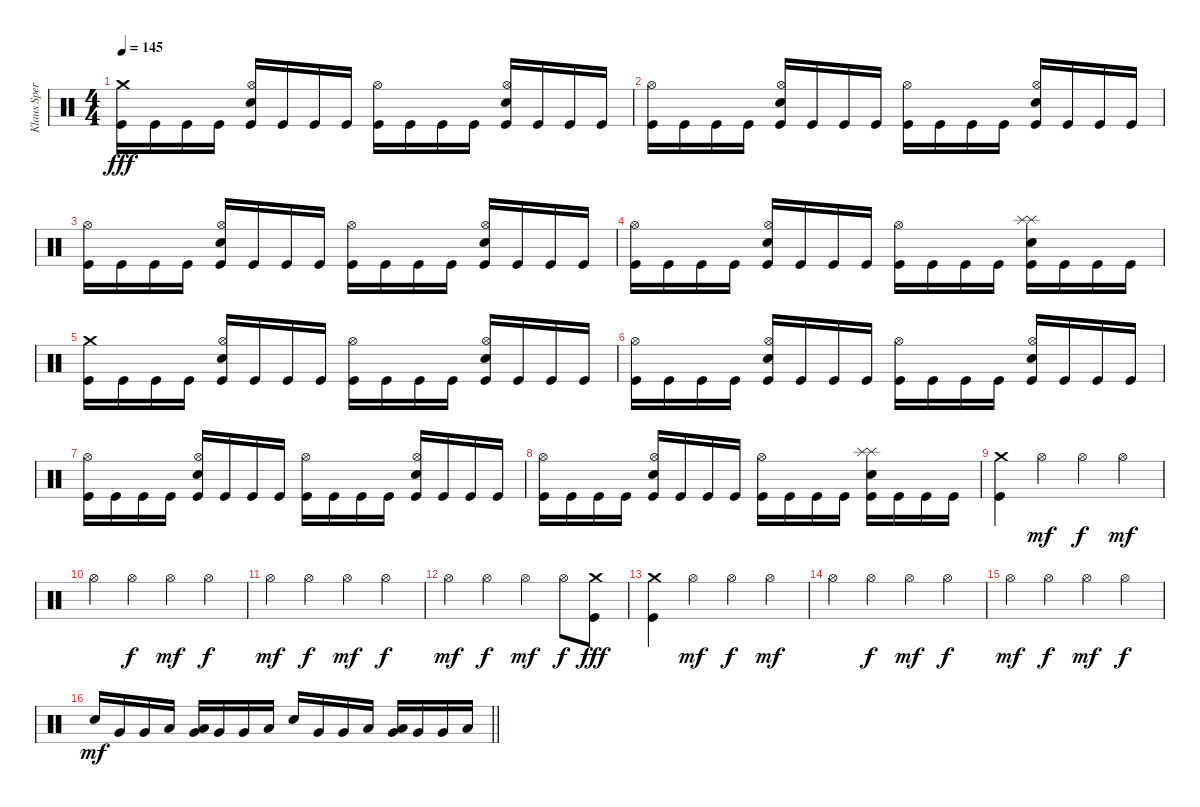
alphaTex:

\track ("Klaus Sperling" "Klaus Sper") {instrument percussion}
\staff {score}
\articulation defaults
\ts (4 4)
\tempo 145
\clef neutral
\ks c
("Crash medium (hit)" "Kick (hit)").16{dy fff} "Kick (hit)".16 "Kick (hit)".16 "Kick (hit)".16 ("Hi-Hat (open)" "Electric Snare (hit)" "Kick (hit)").16 "Kick (hit)".16 "Kick (hit)".16 "Kick (hit)".16 ("Hi-Hat (open)" "Kick (hit)").16 "Kick (hit)".16 "Kick (hit)".16 "Kick (hit)".16 ("Hi-Hat (open)" "Electric Snare (hit)" "Kick (hit)").16 "Kick (hit)".16 "Kick (hit)".16 "Kick (hit)".16 |
("Hi-Hat (open)" "Kick (hit)").16 "Kick (hit)".16 "Kick (hit)".16 "Kick (hit)".16 ("Hi-Hat (open)" "Electric Snare (hit)" "Kick (hit)").16 "Kick (hit)".16 "Kick (hit)".16 "Kick (hit)".16 ("Hi-Hat (open)" "Kick (hit)").16 "Kick (hit)".16 "Kick (hit)".16 "Kick (hit)".16 ("Hi-Hat (open)" "Electric Snare (hit)" "Kick (hit)").16 "Kick (hit)".16 "Kick (hit)".16 "Kick (hit)".16 |
("Hi-Hat (open)" "Kick (hit)").16 "Kick (hit)".16 "Kick (hit)".16 "Kick (hit)".16 ("Hi-Hat (open)" "Electric Snare (hit)" "Kick (hit)").16 "Kick (hit)".16 "Kick (hit)".16 "Kick (hit)".16 ("Hi-Hat (open)" "Kick (hit)").16 "Kick (hit)".16 "Kick (hit)".16 "Kick (hit)".16 ("Hi-Hat (open)" "Electric Snare (hit)" "Kick (hit)").16 "Kick (hit)".16 "Kick (hit)".16 "Kick (hit)".16 |
("Hi-Hat (open)" "Kick (hit)").16 "Kick (hit)".16 "Kick (hit)".16 "Kick (hit)".16 ("Hi-Hat (open)" "Electric Snare (hit)" "Kick (hit)").16 "Kick (hit)".16 "Kick (hit)".16 "Kick (hit)".16 ("Hi-Hat (open)" "Kick (hit)").16 "Kick (hit)".16 "Kick (hit)".16 "Kick (hit)".16 ("Splash (hit)" "Splash (hit)" "Electric Snare (hit)" "Kick (hit)").16 "Kick (hit)".16 "Kick (hit)".16 "Kick (hit)".16 |
("Crash medium (hit)" "Kick (hit)").16 "Kick (hit)".16 "Kick (hit)".16 "Kick (hit)".16 ("Hi-Hat (open)" "Electric Snare (hit)" "Kick (hit)").16 "Kick (hit)".16 "Kick (hit)".16 "Kick (hit)".16 ("Hi-Hat (open)" "Kick (hit)").16 "Kick (hit)".16 "Kick (hit)".16 "Kick (hit)".16 ("Hi-Hat (open)" "Electric Snare (hit)" "Kick (hit)").16 "Kick (hit)".16 "Kick (hit)".16 "Kick (hit)".16 |
("Hi-Hat (open)" "Kick (hit)").16 "Kick (hit)".16 "Kick (hit)".16 "Kick (hit)".16 ("Hi-Hat (open)" "Electric Snare (hit)" "Kick (hit)").16 "Kick (hit)".16 "Kick (hit)".16 "Kick (hit)".16 ("Hi-Hat (open)" "Kick (hit)").16 "Kick (hit)".16 "Kick (hit)".16 "Kick (hit)".16 ("Hi-Hat (open)" "Electric Snare (hit)" "Kick (hit)").16 "Kick (hit)".16 "Kick (hit)".16 "Kick (hit)".16 |
("Hi-Hat (open)" "Kick (hit)").16 "Kick (hit)".16 "Kick (hit)".16 "Kick (hit)".16 ("Hi-Hat (open)" "Electric Snare (hit)" "Kick (hit)").16 "Kick (hit)".16 "Kick (hit)".16 "Kick (hit)".16 ("Hi-Hat (open)" "Kick (hit)").16 "Kick (hit)".16 "Kick (hit)".16 "Kick (hit)".16 ("Hi-Hat (open)" "Electric Snare (hit)" "Kick (hit)").16 "Kick (hit)".16 "Kick (hit)".16 "Kick (hit)".16 |
("Hi-Hat (open)" "Kick (hit)").16 "Kick (hit)".16 "Kick (hit)".16 "Kick (hit)".16 ("Hi-Hat (open)" "Electric Snare (hit)" "Kick (hit)").16 "Kick (hit)".16 "Kick (hit)".16 "Kick (hit)".16 ("Hi-Hat (open)" "Kick (hit)").16 "Kick (hit)".16 "Kick (hit)".16 "Kick (hit)".16 ("Splash (hit)" "Splash (hit)" "Electric Snare (hit)" "Kick (hit)").16 "Kick (hit)".16 "Kick (hit)".16 "Kick (hit)".16 |
("Crash medium (hit)" "Kick (hit)").4 "Hi-Hat (open)".4{dy mf} "Hi-Hat (open)".4{dy f} "Hi-Hat (open)".4{dy mf} |
"Hi-Hat (open)".4 "Hi-Hat (open)".4{dy f} "Hi-Hat (open)".4{dy mf} "Hi-Hat (open)".4{dy f} |
"Hi-Hat (open)".4{dy mf} "Hi-Hat (open)".4{dy f} "Hi-Hat (open)".4{dy mf} "Hi-Hat (open)".4{dy f} |
"Hi-Hat (open)".4{dy mf} "Hi-Hat (open)".4{dy f} "Hi-Hat (open)".4{dy mf} "Hi-Hat (open)".8{dy f} ("Crash medium (hit)" "Kick (hit)").8{dy fff} |
("Crash medium (hit)" "Kick (hit)").4 "Hi-Hat (open)".4{dy mf} "Hi-Hat (open)".4{dy f} "Hi-Hat (open)".4{dy mf} |
"Hi-Hat (open)".4 "Hi-Hat (open)".4{dy f} "Hi-Hat (open)".4{dy mf} "Hi-Hat (open)".4{dy f} |
"Hi-Hat (open)".4{dy mf} "Hi-Hat (open)".4{dy f} "Hi-Hat (open)".4{dy mf} "Hi-Hat (open)".4{dy f} |
\barLineRight lightlight "Electric Snare (hit)".16{dy mf} "Very Low Tom (hit)".16 "Very Low Tom (hit)".16 "Low Floor Tom (hit)".16
("Very Low Tom (hit)" "Low Floor Tom (hit)").16 "Very Low Tom (hit)".16 "Very Low Tom (hit)".16 "Low Floor Tom (hit)".16 "Electric Snare (hit)".16 "Very Low Tom (hit)".16 "Very Low Tom (hit)".16 "Low Floor Tom (hit)".16 ("Very Low Tom (hit)" "Low Floor Tom (hit)").16 "Very Low Tom (hit)".16 "Very Low Tom (hit)".16 "Low Floor Tom (hit)".16
